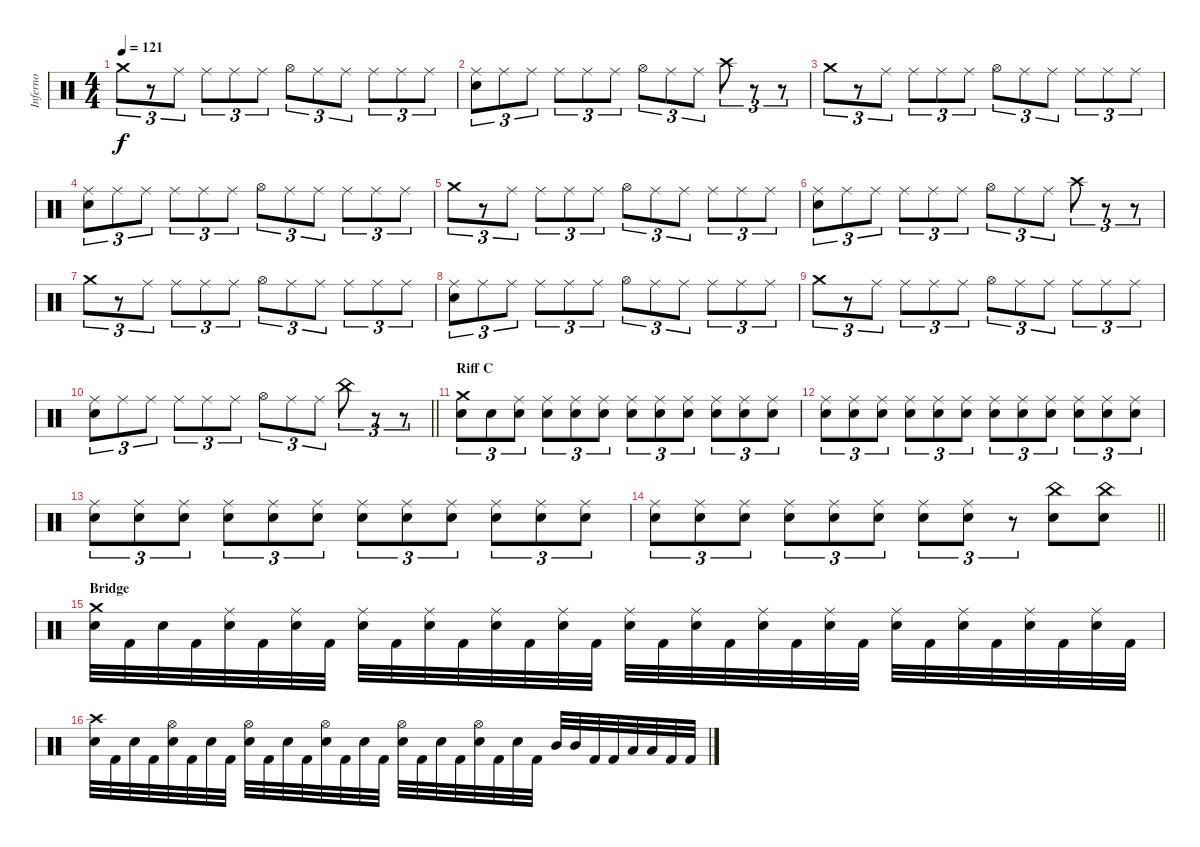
\track ("Inferno" "Inferno") {instrument percussion}
\staff {score}
\articulation defaults
\ts (4 4)
\tempo 121
\clef neutral
\ks c "Crash medium (hit)".8{tu (3 2) dy f}
r.8{tu (3 2)} "Ride (middle)".8{tu (3 2)} "Ride (middle)".8{tu (3 2)} "Ride (middle)".8{tu (3 2)} "Ride (middle)".8{tu (3 2)} "Hi-Hat (open)".8{tu (3 2)} "Ride (middle)".8{tu (3 2)} "Ride (middle)".8{tu (3 2)} "Ride (middle)".8{tu (3 2)} "Ride (middle)".8{tu (3 2)} "Ride (middle)".8{tu (3 2)} |
("Ride (middle)" "Snare (hit) 2").8{tu (3 2)} "Ride (middle)".8{tu (3 2)} "Ride (middle)".8{tu (3 2)} "Ride (middle)".8{tu (3 2)} "Ride (middle)".8{tu (3 2)} "Ride (middle)".8{tu (3 2)} "Hi-Hat (open)".8{tu (3 2)} "Ride (middle)".8{tu (3 2)} "Ride (middle)".8{tu (3 2)} "Crash high (hit)".8{tu (3 2)} r.8{tu (3 2)} r.8{tu (3 2)} |
"Crash medium (hit)".8{tu (3 2)} r.8{tu (3 2)} "Ride (middle)".8{tu (3 2)} "Ride (middle)".8{tu (3 2)} "Ride (middle)".8{tu (3 2)} "Ride (middle)".8{tu (3 2)} "Hi-Hat (open)".8{tu (3 2)} "Ride (middle)".8{tu (3 2)} "Ride (middle)".8{tu (3 2)} "Ride (middle)".8{tu (3 2)} "Ride (middle)".8{tu (3 2)} "Ride (middle)".8{tu (3 2)} |
("Ride (middle)" "Snare (hit) 2").8{tu (3 2)} "Ride (middle)".8{tu (3 2)} "Ride (middle)".8{tu (3 2)} "Ride (middle)".8{tu (3 2)} "Ride (middle)".8{tu (3 2)} "Ride (middle)".8{tu (3 2)} "Hi-Hat (open)".8{tu (3 2)} "Ride (middle)".8{tu (3 2)} "Ride (middle)".8{tu (3 2)} "Ride (middle)".8{tu (3 2)} "Ride (middle)".8{tu (3 2)} "Ride (middle)".8{tu (3 2)} |
"Crash medium (hit)".8{tu (3 2)} r.8{tu (3 2)} "Ride (middle)".8{tu (3 2)} "Ride (middle)".8{tu (3 2)} "Ride (middle)".8{tu (3 2)} "Ride (middle)".8{tu (3 2)} "Hi-Hat (open)".8{tu (3 2)} "Ride (middle)".8{tu (3 2)} "Ride (middle)".8{tu (3 2)} "Ride (middle)".8{tu (3 2)} "Ride (middle)".8{tu (3 2)} "Ride (middle)".8{tu (3 2)} |
("Ride (middle)" "Snare (hit) 2").8{tu (3 2)} "Ride (middle)".8{tu (3 2)} "Ride (middle)".8{tu (3 2)} "Ride (middle)".8{tu (3 2)} "Ride (middle)".8{tu (3 2)} "Ride (middle)".8{tu (3 2)} "Hi-Hat (open)".8{tu (3 2)} "Ride (middle)".8{tu (3 2)} "Ride (middle)".8{tu (3 2)} "Crash high (hit)".8{tu (3 2)} r.8{tu (3 2)} r.8{tu (3 2)} |
"Crash medium (hit)".8{tu (3 2)} r.8{tu (3 2)} "Ride (middle)".8{tu (3 2)} "Ride (middle)".8{tu (3 2)} "Ride (middle)".8{tu (3 2)} "Ride (middle)".8{tu (3 2)} "Hi-Hat (open)".8{tu (3 2)} "Ride (middle)".8{tu (3 2)} "Ride (middle)".8{tu (3 2)} "Ride (middle)".8{tu (3 2)} "Ride (middle)".8{tu (3 2)} "Ride (middle)".8{tu (3 2)} |
("Ride (middle)" "Snare (hit) 2").8{tu (3 2)} "Ride (middle)".8{tu (3 2)} "Ride (middle)".8{tu (3 2)} "Ride (middle)".8{tu (3 2)} "Ride (middle)".8{tu (3 2)} "Ride (middle)".8{tu (3 2)} "Hi-Hat (open)".8{tu (3 2)} "Ride (middle)".8{tu (3 2)} "Ride (middle)".8{tu (3 2)} "Ride (middle)".8{tu (3 2)} "Ride (middle)".8{tu (3 2)} "Ride (middle)".8{tu (3 2)} |
"Crash medium (hit)".8{tu (3 2)} r.8{tu (3 2)} "Ride (middle)".8{tu (3 2)} "Ride (middle)".8{tu (3 2)} "Ride (middle)".8{tu (3 2)} "Ride (middle)".8{tu (3 2)} "Hi-Hat (open)".8{tu (3 2)} "Ride (middle)".8{tu (3 2)} "Ride (middle)".8{tu (3 2)} "Ride (middle)".8{tu (3 2)} "Ride (middle)".8{tu (3 2)} "Ride (middle)".8{tu (3 2)} |
\barLineRight lightlight
("Ride (middle)" "Snare (hit) 2").8{tu (3 2)} "Ride (middle)".8{tu (3 2)} "Ride (middle)".8{tu (3 2)} "Ride (middle)".8{tu (3 2)} "Ride (middle)".8{tu (3 2)} "Ride (middle)".8{tu (3 2)} "Hi-Hat (open)".8{tu (3 2)} "Ride (middle)".8{tu (3 2)} "Ride (middle)".8{tu (3 2)} "China (hit)".8{tu (3 2)} r.8{tu (3 2)} r.8{tu (3 2)} |
\section ("" "Riff C")
("Crash medium (hit)" "Snare (hit) 2").8{tu (3 2)} "Snare (hit) 2".8{tu (3 2)} ("Ride (middle)" "Snare (hit) 2").8{tu (3 2)} ("Ride (middle)" "Snare (hit) 2").8{tu (3 2)} ("Ride (middle)" "Snare (hit) 2").8{tu (3 2)} ("Ride (middle)" "Snare (hit) 2").8{tu (3 2)} ("Ride (middle)" "Snare (hit) 2").8{tu (3 2)} ("Ride (middle)" "Snare (hit) 2").8{tu (3 2)} ("Ride (middle)" "Snare (hit) 2").8{tu (3 2)} ("Ride (middle)" "Snare (hit) 2").8{tu (3 2)} ("Ride (middle)" "Snare (hit) 2").8{tu (3 2)} ("Ride (middle)" "Snare (hit) 2").8{tu (3 2)} |
("Ride (middle)" "Snare (hit) 2").8{tu (3 2)} ("Ride (middle)" "Snare (hit) 2").8{tu (3 2)} ("Ride (middle)" "Snare (hit) 2").8{tu (3 2)} ("Ride (middle)" "Snare (hit) 2").8{tu (3 2)} ("Ride (middle)" "Snare (hit) 2").8{tu (3 2)} ("Ride (middle)" "Snare (hit) 2").8{tu (3 2)} ("Ride (middle)" "Snare (hit) 2").8{tu (3 2)} ("Ride (middle)" "Snare (hit) 2").8{tu (3 2)} ("Ride (middle)" "Snare (hit) 2").8{tu (3 2)} ("Ride (middle)" "Snare (hit) 2").8{tu (3 2)} ("Ride (middle)" "Snare (hit) 2").8{tu (3 2)} ("Ride (middle)" "Snare (hit) 2").8{tu (3 2)} |
("Ride (middle)" "Snare (hit) 2").8{tu (3 2)} ("Ride (middle)" "Snare (hit) 2").8{tu (3 2)} ("Ride (middle)" "Snare (hit) 2").8{tu (3 2)} ("Ride (middle)" "Snare (hit) 2").8{tu (3 2)} ("Ride (middle)" "Snare (hit) 2").8{tu (3 2)} ("Ride (middle)" "Snare (hit) 2").8{tu (3 2)} ("Ride (middle)" "Snare (hit) 2").8{tu (3 2)} ("Ride (middle)" "Snare (hit) 2").8{tu (3 2)} ("Ride (middle)" "Snare (hit) 2").8{tu (3 2)} ("Ride (middle)" "Snare (hit) 2").8{tu (3 2)} ("Ride (middle)" "Snare (hit) 2").8{tu (3 2)} ("Ride (middle)" "Snare (hit) 2").8{tu (3 2)} |
\barLineRight lightlight
("Ride (middle)" "Snare (hit) 2").8{tu (3 2)} ("Ride (middle)" "Snare (hit) 2").8{tu (3 2)} ("Ride (middle)" "Snare (hit) 2").8{tu (3 2)} ("Ride (middle)" "Snare (hit) 2").8{tu (3 2)} ("Ride (middle)" "Snare (hit) 2").8{tu (3 2)} ("Ride (middle)" "Snare (hit) 2").8{tu (3 2)} ("Ride (middle)" "Snare (hit) 2").8{tu (3 2)} ("Ride (middle)" "Snare (hit) 2").8{tu (3 2)} r.8{tu (3 2)} ("China (hit)" "Snare (hit) 2").8 ("China (hit)" "Snare (hit) 2").8 |
\section ("" "Bridge ")
("Crash medium (hit)" "Snare (hit) 2").32 "Kick (hit) 2".32 "Snare (hit) 2".32 "Kick (hit) 2".32 ("Ride (middle)" "Snare (hit) 2").32 "Kick (hit) 2".32 ("Ride (middle)" "Snare (hit) 2").32 "Kick (hit) 2".32 ("Ride (middle)" "Snare (hit) 2").32 "Kick (hit) 2".32 ("Ride (middle)" "Snare (hit) 2").32 "Kick (hit) 2".32 ("Ride (middle)" "Snare (hit) 2").32 "Kick (hit) 2".32 ("Ride (middle)" "Snare (hit) 2").32 "Kick (hit) 2".32 ("Ride (middle)" "Snare (hit) 2").32 "Kick (hit) 2".32 ("Ride (middle)" "Snare (hit) 2").32 "Kick (hit) 2".32 ("Ride (middle)" "Snare (hit) 2").32 "Kick (hit) 2".32 ("Ride (middle)" "Snare (hit) 2").32 "Kick (hit) 2".32 ("Ride (middle)" "Snare (hit) 2").32 "Kick (hit) 2".32 ("Ride (middle)" "Snare (hit) 2").32 "Kick (hit) 2".32 ("Ride (middle)" "Snare (hit) 2").32 "Kick (hit) 2".32 ("Ride (middle)" "Snare (hit) 2").32 "Kick (hit) 2".32 |
("Crash high (hit)" "Snare (hit) 2").32 "Kick (hit) 2".32 "Snare (hit) 2".32 "Kick (hit) 2".32 ("Hi-Hat (open)" "Snare (hit) 2").32 "Kick (hit) 2".32 "Snare (hit) 2".32 "Kick (hit) 2".32 ("Hi-Hat (open)" "Snare (hit) 2").32 "Kick (hit) 2".32 "Snare (hit) 2".32 "Kick (hit) 2".32 ("Hi-Hat (open)" "Snare (hit) 2").32 "Kick (hit) 2".32 "Snare (hit) 2".32 "Kick (hit) 2".32 ("Hi-Hat (open)" "Snare (hit) 2").32 "Kick (hit) 2".32 "Snare (hit) 2".32 "Kick (hit) 2".32 ("Hi-Hat (open)" "Snare (hit) 2").32 "Kick (hit) 2".32 "Snare (hit) 2".32 "Kick (hit) 2".32 "Mid Tom (hit)".32 "Mid Tom (hit)".32 "Kick (hit) 2".32 "Kick (hit) 2".32 "Low Tom (hit)".32 "Low Tom (hit)".32 "Kick (hit) 2".32 "Kick (hit) 2".32
